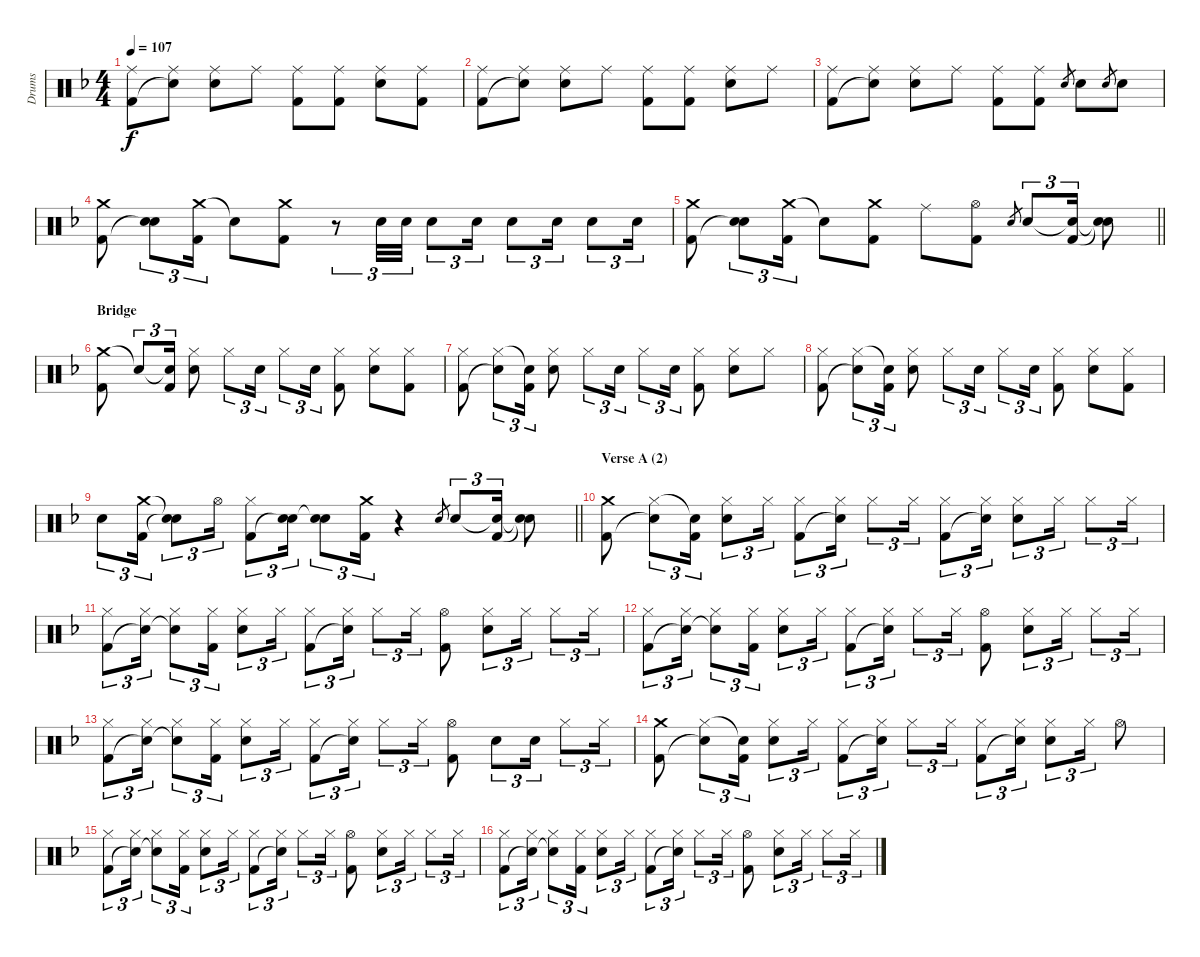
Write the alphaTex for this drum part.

\track ("Drums" "Drums") {instrument percussion}
\staff {score}
\articulation defaults
\ts (4 4)
\tempo 107
\clef neutral
\ks dminor
("Ride (middle)" "Kick (hit) 2").8{dy f} ("Ride (middle)" "Snare (hit)"{t}).8 ("Ride (middle)" "Electric Snare (hit)").8 "Ride (middle)".8 ("Ride (middle)" "Kick (hit) 2").8 ("Ride (middle)" "Kick (hit) 2").8 ("Ride (middle)" "Electric Snare (hit)").8 ("Ride (middle)" "Kick (hit) 2").8 |
("Ride (middle)" "Kick (hit) 2").8 ("Ride (middle)" "Snare (hit)"{t}).8 ("Ride (middle)" "Electric Snare (hit)").8 "Ride (middle)".8 ("Ride (middle)" "Kick (hit) 2").8 ("Ride (middle)" "Kick (hit) 2").8 ("Ride (middle)" "Electric Snare (hit)").8 "Ride (middle)".8 |
("Ride (middle)" "Kick (hit) 2").8 ("Ride (middle)" "Snare (hit)"{t}).8 ("Ride (middle)" "Electric Snare (hit)").8 "Ride (middle)".8 ("Ride (middle)" "Kick (hit) 2").8 ("Ride (middle)" "Kick (hit) 2").8 "Electric Snare (hit)".8{gr} "Electric Snare (hit)".8 "Electric Snare (hit)".8{gr} "Electric Snare (hit)".8 |
("Crash medium (hit)" "Kick (hit) 2").8 ("Electric Snare (hit)" "Snare (hit)"{t}).8{tu (3 2)} ("Crash medium (hit)" "Kick (hit) 2").16{tu (3 2)} "Snare (hit)"{t}.8 ("Crash medium (hit)" "Kick (hit) 2").8 r.8{tu (3 2)} "Electric Snare (hit)".32{tu (3 2)} "Electric Snare (hit)".32{tu (3 2)} "Electric Snare (hit)".8{tu (3 2)} "Electric Snare (hit)".16{tu (3 2)} "Electric Snare (hit)".8{tu (3 2)} "Electric Snare (hit)".16{tu (3 2)} "Electric Snare (hit)".8{tu (3 2)} "Electric Snare (hit)".16{tu (3 2)} |
\barLineRight lightlight
("Crash medium (hit)" "Kick (hit) 2").8 ("Electric Snare (hit)" "Snare (hit)"{t}).8{tu (3 2)} ("Crash medium (hit)" "Kick (hit) 2").16{tu (3 2)} "Snare (hit)"{t}.8 ("Crash medium (hit)" "Kick (hit) 2").8 "Ride (middle)".8 ("Hi-Hat (open)" "Kick (hit) 2").8 "Electric Snare (hit)".8{gr} "Electric Snare (hit)".8{tu (3 2)} ("Snare (hit)"{t} "Kick (hit) 2").16{tu (3 2)} ("Snare (hit)"{t} "Snare (hit)"{t}).8 |
\section ("" "Bridge")
("Crash medium (hit)" "Kick (hit) 2").8 "Snare (hit)"{t}.8{tu (3 2)} ("Snare (hit)"{t} "Kick (hit) 2").16{tu (3 2)} ("Hi-Hat (closed)" "Electric Snare (hit)").8 "Hi-Hat (closed)".8{tu (3 2)} "Electric Snare (hit)".16{tu (3 2)} "Hi-Hat (closed)".8{tu (3 2)} "Electric Snare (hit)".16{tu (3 2)} ("Hi-Hat (closed)" "Kick (hit) 2").8 ("Hi-Hat (closed)" "Electric Snare (hit)").8 ("Hi-Hat (closed)" "Kick (hit) 2").8 |
("Hi-Hat (closed)" "Kick (hit) 2").8 ("Hi-Hat (closed)" "Snare (hit)"{t}).8{tu (3 2)} ("Snare (hit)"{t} "Kick (hit) 2").16{tu (3 2)} ("Hi-Hat (closed)" "Electric Snare (hit)").8 "Hi-Hat (closed)".8{tu (3 2)} "Electric Snare (hit)".16{tu (3 2)} "Hi-Hat (closed)".8{tu (3 2)} "Electric Snare (hit)".16{tu (3 2)} ("Hi-Hat (closed)" "Kick (hit) 2").8 ("Hi-Hat (closed)" "Electric Snare (hit)").8 "Hi-Hat (closed)".8 |
("Hi-Hat (closed)" "Kick (hit) 2").8 ("Hi-Hat (closed)" "Snare (hit)"{t}).8{tu (3 2)} ("Snare (hit)"{t} "Kick (hit) 2").16{tu (3 2)} ("Hi-Hat (closed)" "Electric Snare (hit)").8 "Hi-Hat (closed)".8{tu (3 2)} "Electric Snare (hit)".16{tu (3 2)} "Hi-Hat (closed)".8{tu (3 2)} "Electric Snare (hit)".16{tu (3 2)} ("Hi-Hat (closed)" "Kick (hit) 2").8 ("Hi-Hat (closed)" "Electric Snare (hit)").8 ("Hi-Hat (closed)" "Kick (hit) 2").8 |
\barLineRight lightlight "Electric Snare (hit)".8{tu (3 2)}
("Crash medium (hit)" "Kick (hit) 2").16{tu (3 2)} ("Snare (hit)"{t} "Snare (hit)"{t}).8{tu (3 2)} "Hi-Hat (open)".16{tu (3 2)} ("Hi-Hat (closed)" "Kick (hit) 2").8{tu (3 2)} ("Electric Snare (hit)" "Snare (hit)"{t}).16{tu (3 2)} ("Electric Snare (hit)" "Snare (hit)"{t}).8{tu (3 2)} ("Crash medium (hit)" "Kick (hit) 2").16{tu (3 2)} r.4 "Electric Snare (hit)".8{gr} "Electric Snare (hit)".8{tu (3 2)} ("Snare (hit)"{t} "Kick (hit) 2").16{tu (3 2)} ("Snare (hit)"{t} "Snare (hit)"{t}).8 |
\section ("" "Verse A (2)")
("Crash medium (hit)" "Kick (hit) 2").8 ("Hi-Hat (closed)" "Snare (hit)"{t}).8{tu (3 2)} ("Snare (hit)"{t} "Kick (hit) 2").16{tu (3 2)} ("Hi-Hat (closed)" "Electric Snare (hit)").8{tu (3 2)} "Hi-Hat (closed)".16{tu (3 2)} ("Hi-Hat (closed)" "Kick (hit) 2").8{tu (3 2)} ("Hi-Hat (closed)" "Snare (hit)"{t}).16{tu (3 2)} "Hi-Hat (closed)".8{tu (3 2)} "Hi-Hat (closed)".16{tu (3 2)} ("Hi-Hat (closed)" "Kick (hit) 2").8{tu (3 2)} ("Hi-Hat (closed)" "Snare (hit)"{t}).16{tu (3 2)} ("Hi-Hat (closed)" "Electric Snare (hit)").8{tu (3 2)} "Hi-Hat (closed)".16{tu (3 2)} "Hi-Hat (closed)".8{tu (3 2)} "Hi-Hat (closed)".16{tu (3 2)} |
("Hi-Hat (closed)" "Kick (hit) 2").8{tu (3 2)} ("Hi-Hat (closed)" "Snare (hit)"{t}).16{tu (3 2)} ("Hi-Hat (closed)" "Snare (hit)"{t}).8{tu (3 2)} ("Hi-Hat (closed)" "Kick (hit) 2").16{tu (3 2)} ("Hi-Hat (closed)" "Electric Snare (hit)").8{tu (3 2)} "Hi-Hat (closed)".16{tu (3 2)} ("Hi-Hat (closed)" "Kick (hit) 2").8{tu (3 2)} ("Hi-Hat (closed)" "Snare (hit)"{t}).16{tu (3 2)} "Hi-Hat (closed)".8{tu (3 2)} "Hi-Hat (closed)".16{tu (3 2)} ("Hi-Hat (open)" "Kick (hit) 2").8 ("Hi-Hat (closed)" "Electric Snare (hit)").8{tu (3 2)} "Hi-Hat (closed)".16{tu (3 2)} "Hi-Hat (closed)".8{tu (3 2)} "Hi-Hat (closed)".16{tu (3 2)} |
("Hi-Hat (closed)" "Kick (hit) 2").8{tu (3 2)} ("Hi-Hat (closed)" "Snare (hit)"{t}).16{tu (3 2)} ("Hi-Hat (closed)" "Snare (hit)"{t}).8{tu (3 2)} ("Hi-Hat (closed)" "Kick (hit) 2").16{tu (3 2)} ("Hi-Hat (closed)" "Electric Snare (hit)").8{tu (3 2)} "Hi-Hat (closed)".16{tu (3 2)} ("Hi-Hat (closed)" "Kick (hit) 2").8{tu (3 2)} ("Hi-Hat (closed)" "Snare (hit)"{t}).16{tu (3 2)} "Hi-Hat (closed)".8{tu (3 2)} "Hi-Hat (closed)".16{tu (3 2)} ("Hi-Hat (open)" "Kick (hit) 2").8 ("Hi-Hat (closed)" "Electric Snare (hit)").8{tu (3 2)} "Hi-Hat (closed)".16{tu (3 2)} "Hi-Hat (closed)".8{tu (3 2)} "Hi-Hat (closed)".16{tu (3 2)} |
("Hi-Hat (closed)" "Kick (hit) 2").8{tu (3 2)} ("Hi-Hat (closed)" "Snare (hit)"{t}).16{tu (3 2)} ("Hi-Hat (closed)" "Snare (hit)"{t}).8{tu (3 2)} ("Hi-Hat (closed)" "Kick (hit) 2").16{tu (3 2)} ("Hi-Hat (closed)" "Electric Snare (hit)").8{tu (3 2)} "Hi-Hat (closed)".16{tu (3 2)} ("Hi-Hat (closed)" "Kick (hit) 2").8{tu (3 2)} ("Hi-Hat (closed)" "Snare (hit)"{t}).16{tu (3 2)} "Hi-Hat (closed)".8{tu (3 2)} "Hi-Hat (closed)".16{tu (3 2)} ("Hi-Hat (open)" "Kick (hit) 2").8 "Electric Snare (hit)".8{tu (3 2)} "Electric Snare (hit)".16{tu (3 2)} "Hi-Hat (closed)".8{tu (3 2)} "Hi-Hat (closed)".16{tu (3 2)} |
("Crash medium (hit)" "Kick (hit) 2").8 ("Hi-Hat (closed)" "Snare (hit)"{t}).8{tu (3 2)} ("Snare (hit)"{t} "Kick (hit) 2").16{tu (3 2)} ("Hi-Hat (closed)" "Electric Snare (hit)").8{tu (3 2)} "Hi-Hat (closed)".16{tu (3 2)} ("Hi-Hat (closed)" "Kick (hit) 2").8{tu (3 2)} ("Hi-Hat (closed)" "Snare (hit)"{t}).16{tu (3 2)} "Hi-Hat (closed)".8{tu (3 2)} "Hi-Hat (closed)".16{tu (3 2)} ("Hi-Hat (closed)" "Kick (hit) 2").8{tu (3 2)} ("Hi-Hat (closed)" "Snare (hit)"{t}).16{tu (3 2)} ("Hi-Hat (closed)" "Electric Snare (hit)").8{tu (3 2)} "Hi-Hat (closed)".16{tu (3 2)} "Hi-Hat (open)".8 |
("Hi-Hat (closed)" "Kick (hit) 2").8{tu (3 2)} ("Hi-Hat (closed)" "Snare (hit)"{t}).16{tu (3 2)} ("Hi-Hat (closed)" "Snare (hit)"{t}).8{tu (3 2)} ("Hi-Hat (closed)" "Kick (hit) 2").16{tu (3 2)} ("Hi-Hat (closed)" "Electric Snare (hit)").8{tu (3 2)} "Hi-Hat (closed)".16{tu (3 2)} ("Hi-Hat (closed)" "Kick (hit) 2").8{tu (3 2)} ("Hi-Hat (closed)" "Snare (hit)"{t}).16{tu (3 2)} "Hi-Hat (closed)".8{tu (3 2)} "Hi-Hat (closed)".16{tu (3 2)} ("Hi-Hat (open)" "Kick (hit) 2").8 ("Hi-Hat (closed)" "Electric Snare (hit)").8{tu (3 2)} "Hi-Hat (closed)".16{tu (3 2)} "Hi-Hat (closed)".8{tu (3 2)} "Hi-Hat (closed)".16{tu (3 2)} |
("Hi-Hat (closed)" "Kick (hit) 2").8{tu (3 2)} ("Hi-Hat (closed)" "Snare (hit)"{t}).16{tu (3 2)} ("Hi-Hat (closed)" "Snare (hit)"{t}).8{tu (3 2)} ("Hi-Hat (closed)" "Kick (hit) 2").16{tu (3 2)} ("Hi-Hat (closed)" "Electric Snare (hit)").8{tu (3 2)} "Hi-Hat (closed)".16{tu (3 2)} ("Hi-Hat (closed)" "Kick (hit) 2").8{tu (3 2)} ("Hi-Hat (closed)" "Snare (hit)"{t}).16{tu (3 2)} "Hi-Hat (closed)".8{tu (3 2)} "Hi-Hat (closed)".16{tu (3 2)} ("Hi-Hat (open)" "Kick (hit) 2").8 ("Hi-Hat (closed)" "Electric Snare (hit)").8{tu (3 2)} "Hi-Hat (closed)".16{tu (3 2)} "Hi-Hat (closed)".8{tu (3 2)} "Hi-Hat (closed)".16{tu (3 2)}
